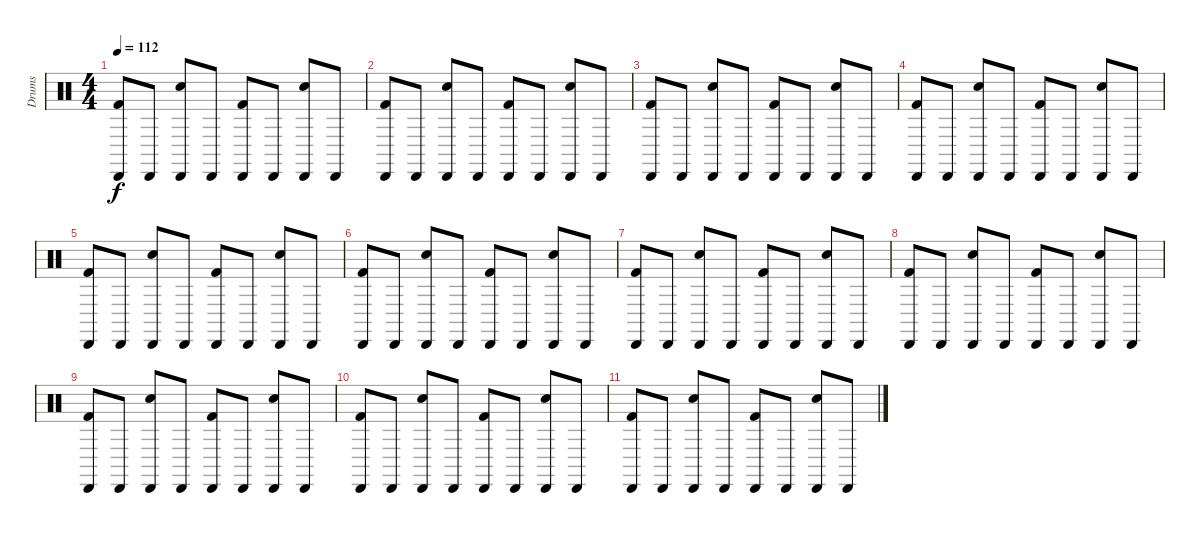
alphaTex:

\track ("Drums" "Drums") {instrument percussion}
\staff {score}
\articulation defaults
\ts (4 4)
\tempo 112
\clef neutral
\ks c
("Kick (hit) 2" "Cabasa (hit)").8{dy f} "Cabasa (hit)".8 ("Snare (hit) 2" "Cabasa (hit)").8 "Cabasa (hit)".8 ("Kick (hit) 2" "Cabasa (hit)").8 "Cabasa (hit)".8 ("Snare (hit) 2" "Cabasa (hit)").8 "Cabasa (hit)".8 |
("Kick (hit) 2" "Cabasa (hit)").8 "Cabasa (hit)".8 ("Snare (hit) 2" "Cabasa (hit)").8 "Cabasa (hit)".8 ("Kick (hit) 2" "Cabasa (hit)").8 "Cabasa (hit)".8 ("Snare (hit) 2" "Cabasa (hit)").8 "Cabasa (hit)".8 |
("Kick (hit) 2" "Cabasa (hit)").8 "Cabasa (hit)".8 ("Snare (hit) 2" "Cabasa (hit)").8 "Cabasa (hit)".8 ("Kick (hit) 2" "Cabasa (hit)").8 "Cabasa (hit)".8 ("Snare (hit) 2" "Cabasa (hit)").8 "Cabasa (hit)".8 |
("Kick (hit) 2" "Cabasa (hit)").8 "Cabasa (hit)".8 ("Snare (hit) 2" "Cabasa (hit)").8 "Cabasa (hit)".8 ("Kick (hit) 2" "Cabasa (hit)").8 "Cabasa (hit)".8 ("Snare (hit) 2" "Cabasa (hit)").8 "Cabasa (hit)".8 |
("Kick (hit) 2" "Cabasa (hit)").8 "Cabasa (hit)".8 ("Snare (hit) 2" "Cabasa (hit)").8 "Cabasa (hit)".8 ("Kick (hit) 2" "Cabasa (hit)").8 "Cabasa (hit)".8 ("Snare (hit) 2" "Cabasa (hit)").8 "Cabasa (hit)".8 |
("Kick (hit) 2" "Cabasa (hit)").8 "Cabasa (hit)".8 ("Snare (hit) 2" "Cabasa (hit)").8 "Cabasa (hit)".8 ("Kick (hit) 2" "Cabasa (hit)").8 "Cabasa (hit)".8 ("Snare (hit) 2" "Cabasa (hit)").8 "Cabasa (hit)".8 |
("Kick (hit) 2" "Cabasa (hit)").8 "Cabasa (hit)".8 ("Snare (hit) 2" "Cabasa (hit)").8 "Cabasa (hit)".8 ("Kick (hit) 2" "Cabasa (hit)").8 "Cabasa (hit)".8 ("Snare (hit) 2" "Cabasa (hit)").8 "Cabasa (hit)".8 |
("Kick (hit) 2" "Cabasa (hit)").8 "Cabasa (hit)".8 ("Snare (hit) 2" "Cabasa (hit)").8 "Cabasa (hit)".8 ("Kick (hit) 2" "Cabasa (hit)").8 "Cabasa (hit)".8 ("Snare (hit) 2" "Cabasa (hit)").8 "Cabasa (hit)".8 |
("Kick (hit) 2" "Cabasa (hit)").8 "Cabasa (hit)".8 ("Snare (hit) 2" "Cabasa (hit)").8 "Cabasa (hit)".8 ("Kick (hit) 2" "Cabasa (hit)").8 "Cabasa (hit)".8 ("Snare (hit) 2" "Cabasa (hit)").8 "Cabasa (hit)".8 |
("Kick (hit) 2" "Cabasa (hit)").8 "Cabasa (hit)".8 ("Snare (hit) 2" "Cabasa (hit)").8 "Cabasa (hit)".8 ("Kick (hit) 2" "Cabasa (hit)").8 "Cabasa (hit)".8 ("Snare (hit) 2" "Cabasa (hit)").8 "Cabasa (hit)".8 |
("Kick (hit) 2" "Cabasa (hit)").8 "Cabasa (hit)".8 ("Snare (hit) 2" "Cabasa (hit)").8 "Cabasa (hit)".8 ("Kick (hit) 2" "Cabasa (hit)").8 "Cabasa (hit)".8 ("Snare (hit) 2" "Cabasa (hit)").8 "Cabasa (hit)".8
